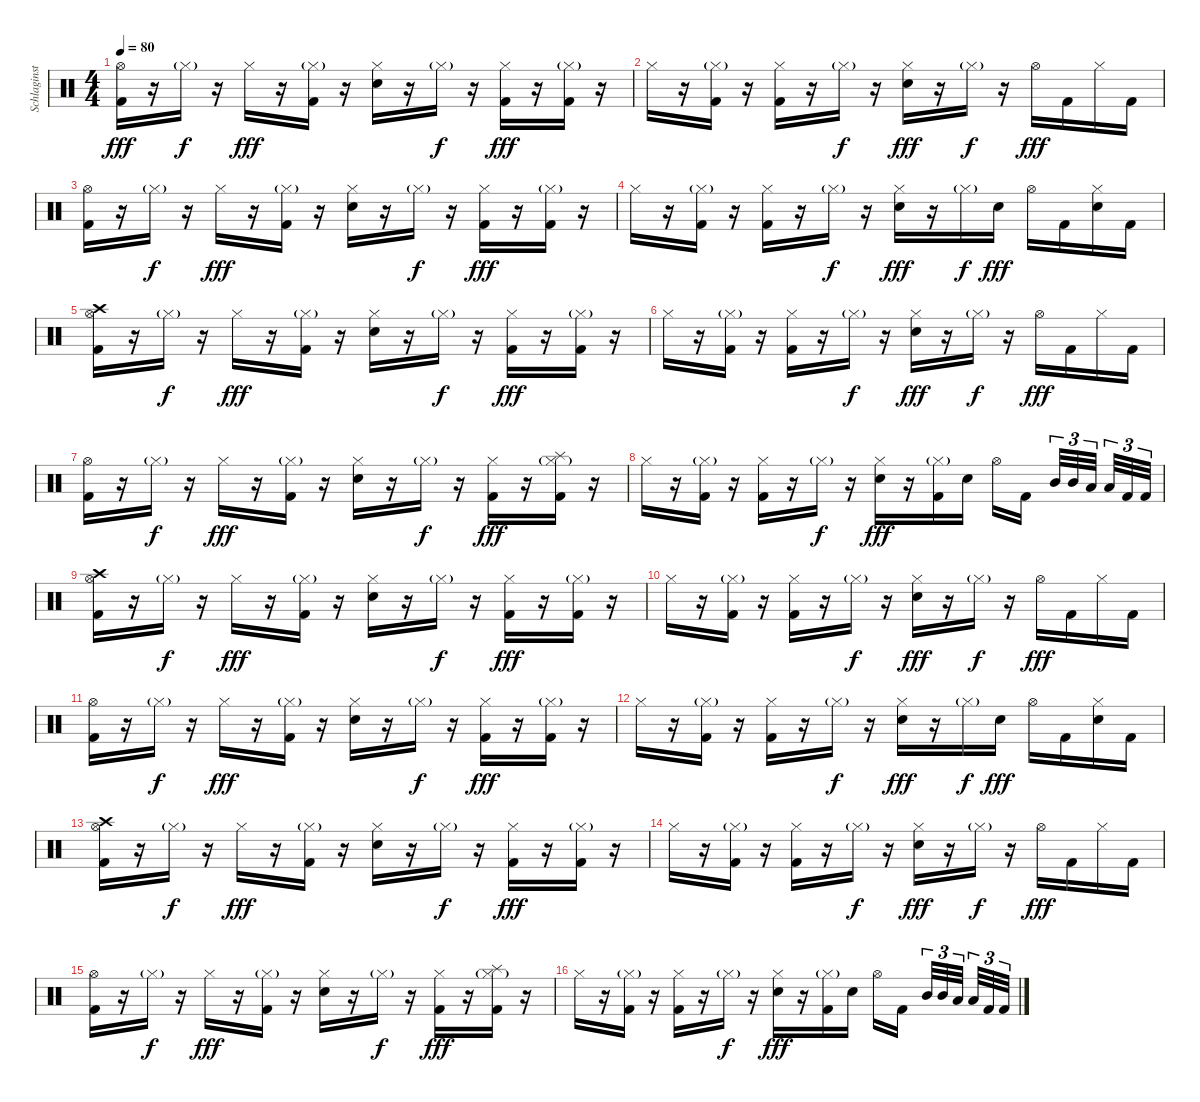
\track ("Schlaginstrumente - Auswahl" "Schlaginst") {instrument percussion}
\staff {score}
\articulation defaults
\ts (4 4)
\tempo 80
\clef neutral
\ks c
("Hi-Hat (open)" "Kick (hit) 2").16{dy fff} r.16 "Hi-Hat (closed)"{g}.16{dy f} r.16 "Hi-Hat (closed)".16{dy fff} r.16 ("Hi-Hat (closed)"{g} "Kick (hit) 2").16 r.16 ("Hi-Hat (closed)" "Electric Snare (hit)").16 r.16 "Hi-Hat (closed)"{g}.16{dy f} r.16 ("Hi-Hat (closed)" "Kick (hit) 2").16{dy fff} r.16 ("Hi-Hat (closed)"{g} "Kick (hit) 2").16 r.16 |
"Hi-Hat (closed)".16 r.16 ("Hi-Hat (closed)"{g} "Kick (hit) 2").16 r.16 ("Hi-Hat (closed)" "Kick (hit) 2").16 r.16 "Hi-Hat (closed)"{g}.16{dy f} r.16 ("Hi-Hat (closed)" "Electric Snare (hit)").16{dy fff} r.16 "Hi-Hat (closed)"{g}.16{dy f} r.16 "Hi-Hat (open)".16{dy fff} "Kick (hit) 2".16 "Hi-Hat (closed)".16 "Kick (hit) 2".16 |
("Hi-Hat (open)" "Kick (hit) 2").16 r.16 "Hi-Hat (closed)"{g}.16{dy f} r.16 "Hi-Hat (closed)".16{dy fff} r.16 ("Hi-Hat (closed)"{g} "Kick (hit) 2").16 r.16 ("Hi-Hat (closed)" "Electric Snare (hit)").16 r.16 "Hi-Hat (closed)"{g}.16{dy f} r.16 ("Hi-Hat (closed)" "Kick (hit) 2").16{dy fff} r.16 ("Hi-Hat (closed)"{g} "Kick (hit) 2").16 r.16 |
"Hi-Hat (closed)".16 r.16 ("Hi-Hat (closed)"{g} "Kick (hit) 2").16 r.16 ("Hi-Hat (closed)" "Kick (hit) 2").16 r.16 "Hi-Hat (closed)"{g}.16{dy f} r.16 ("Hi-Hat (closed)" "Electric Snare (hit)").16{dy fff} r.16 "Hi-Hat (closed)"{g}.16{dy f} "Electric Snare (hit)".16{dy fff} "Hi-Hat (open)".16 "Kick (hit) 2".16 ("Hi-Hat (closed)" "Electric Snare (hit)").16 "Kick (hit) 2".16 |
("Crash high (hit)" "Hi-Hat (open)" "Kick (hit) 2").16 r.16 "Hi-Hat (closed)"{g}.16{dy f} r.16 "Hi-Hat (closed)".16{dy fff} r.16 ("Hi-Hat (closed)"{g} "Kick (hit) 2").16 r.16 ("Hi-Hat (closed)" "Electric Snare (hit)").16 r.16 "Hi-Hat (closed)"{g}.16{dy f} r.16 ("Hi-Hat (closed)" "Kick (hit) 2").16{dy fff} r.16 ("Hi-Hat (closed)"{g} "Kick (hit) 2").16 r.16 |
"Hi-Hat (closed)".16 r.16 ("Hi-Hat (closed)"{g} "Kick (hit) 2").16 r.16 ("Hi-Hat (closed)" "Kick (hit) 2").16 r.16 "Hi-Hat (closed)"{g}.16{dy f} r.16 ("Hi-Hat (closed)" "Electric Snare (hit)").16{dy fff} r.16 "Hi-Hat (closed)"{g}.16{dy f} r.16 "Hi-Hat (open)".16{dy fff} "Kick (hit) 2".16 "Hi-Hat (closed)".16 "Kick (hit) 2".16 |
("Hi-Hat (open)" "Kick (hit) 2").16 r.16 "Hi-Hat (closed)"{g}.16{dy f} r.16 "Hi-Hat (closed)".16{dy fff} r.16 ("Hi-Hat (closed)"{g} "Kick (hit) 2").16 r.16 ("Hi-Hat (closed)" "Electric Snare (hit)").16 r.16 "Hi-Hat (closed)"{g}.16{dy f} r.16 ("Hi-Hat (closed)" "Kick (hit) 2").16{dy fff} r.16 ("Splash (hit)" "Hi-Hat (closed)"{g} "Kick (hit) 2").16 r.16 |
"Hi-Hat (closed)".16 r.16 ("Hi-Hat (closed)"{g} "Kick (hit) 2").16 r.16 ("Hi-Hat (closed)" "Kick (hit) 2").16 r.16 "Hi-Hat (closed)"{g}.16{dy f} r.16 ("Hi-Hat (closed)" "Electric Snare (hit)").16{dy fff} r.16 ("Hi-Hat (closed)"{g} "Kick (hit) 2").16 "Electric Snare (hit)".16 "Hi-Hat (open)".16 "Kick (hit) 2".16{beam splitsecondary} "Mid Tom (hit)".32{tu (3 2)} "Mid Tom (hit)".32{tu (3 2)} "Low Tom (hit)".32{tu (3 2) beam splitsecondary} "Low Tom (hit)".32{tu (3 2)} "Kick (hit) 2".32{tu (3 2)} "Kick (hit) 2".32{tu (3 2)} |
("Crash high (hit)" "Hi-Hat (open)" "Kick (hit) 2").16 r.16 "Hi-Hat (closed)"{g}.16{dy f} r.16 "Hi-Hat (closed)".16{dy fff} r.16 ("Hi-Hat (closed)"{g} "Kick (hit) 2").16 r.16 ("Hi-Hat (closed)" "Electric Snare (hit)").16 r.16 "Hi-Hat (closed)"{g}.16{dy f} r.16 ("Hi-Hat (closed)" "Kick (hit) 2").16{dy fff} r.16 ("Hi-Hat (closed)"{g} "Kick (hit) 2").16 r.16 |
"Hi-Hat (closed)".16 r.16 ("Hi-Hat (closed)"{g} "Kick (hit) 2").16 r.16 ("Hi-Hat (closed)" "Kick (hit) 2").16 r.16 "Hi-Hat (closed)"{g}.16{dy f} r.16 ("Hi-Hat (closed)" "Electric Snare (hit)").16{dy fff} r.16 "Hi-Hat (closed)"{g}.16{dy f} r.16 "Hi-Hat (open)".16{dy fff} "Kick (hit) 2".16 "Hi-Hat (closed)".16 "Kick (hit) 2".16 |
("Hi-Hat (open)" "Kick (hit) 2").16 r.16 "Hi-Hat (closed)"{g}.16{dy f} r.16 "Hi-Hat (closed)".16{dy fff} r.16 ("Hi-Hat (closed)"{g} "Kick (hit) 2").16 r.16 ("Hi-Hat (closed)" "Electric Snare (hit)").16 r.16 "Hi-Hat (closed)"{g}.16{dy f} r.16 ("Hi-Hat (closed)" "Kick (hit) 2").16{dy fff} r.16 ("Hi-Hat (closed)"{g} "Kick (hit) 2").16 r.16 |
"Hi-Hat (closed)".16 r.16 ("Hi-Hat (closed)"{g} "Kick (hit) 2").16 r.16 ("Hi-Hat (closed)" "Kick (hit) 2").16 r.16 "Hi-Hat (closed)"{g}.16{dy f} r.16 ("Hi-Hat (closed)" "Electric Snare (hit)").16{dy fff} r.16 "Hi-Hat (closed)"{g}.16{dy f} "Electric Snare (hit)".16{dy fff} "Hi-Hat (open)".16 "Kick (hit) 2".16 ("Hi-Hat (closed)" "Electric Snare (hit)").16 "Kick (hit) 2".16 |
("Crash high (hit)" "Hi-Hat (open)" "Kick (hit) 2").16 r.16 "Hi-Hat (closed)"{g}.16{dy f} r.16 "Hi-Hat (closed)".16{dy fff} r.16 ("Hi-Hat (closed)"{g} "Kick (hit) 2").16 r.16 ("Hi-Hat (closed)" "Electric Snare (hit)").16 r.16 "Hi-Hat (closed)"{g}.16{dy f} r.16 ("Hi-Hat (closed)" "Kick (hit) 2").16{dy fff} r.16 ("Hi-Hat (closed)"{g} "Kick (hit) 2").16 r.16 |
"Hi-Hat (closed)".16 r.16 ("Hi-Hat (closed)"{g} "Kick (hit) 2").16 r.16 ("Hi-Hat (closed)" "Kick (hit) 2").16 r.16 "Hi-Hat (closed)"{g}.16{dy f} r.16 ("Hi-Hat (closed)" "Electric Snare (hit)").16{dy fff} r.16 "Hi-Hat (closed)"{g}.16{dy f} r.16 "Hi-Hat (open)".16{dy fff} "Kick (hit) 2".16 "Hi-Hat (closed)".16 "Kick (hit) 2".16 |
("Hi-Hat (open)" "Kick (hit) 2").16 r.16 "Hi-Hat (closed)"{g}.16{dy f} r.16 "Hi-Hat (closed)".16{dy fff} r.16 ("Hi-Hat (closed)"{g} "Kick (hit) 2").16 r.16 ("Hi-Hat (closed)" "Electric Snare (hit)").16 r.16 "Hi-Hat (closed)"{g}.16{dy f} r.16 ("Hi-Hat (closed)" "Kick (hit) 2").16{dy fff} r.16 ("Splash (hit)" "Hi-Hat (closed)"{g} "Kick (hit) 2").16 r.16 |
"Hi-Hat (closed)".16 r.16 ("Hi-Hat (closed)"{g} "Kick (hit) 2").16 r.16 ("Hi-Hat (closed)" "Kick (hit) 2").16 r.16 "Hi-Hat (closed)"{g}.16{dy f} r.16 ("Hi-Hat (closed)" "Electric Snare (hit)").16{dy fff} r.16 ("Hi-Hat (closed)"{g} "Kick (hit) 2").16 "Electric Snare (hit)".16 "Hi-Hat (open)".16 "Kick (hit) 2".16{beam splitsecondary} "Mid Tom (hit)".32{tu (3 2)} "Mid Tom (hit)".32{tu (3 2)} "Low Tom (hit)".32{tu (3 2) beam splitsecondary} "Low Tom (hit)".32{tu (3 2)} "Kick (hit) 2".32{tu (3 2)} "Kick (hit) 2".32{tu (3 2)}
